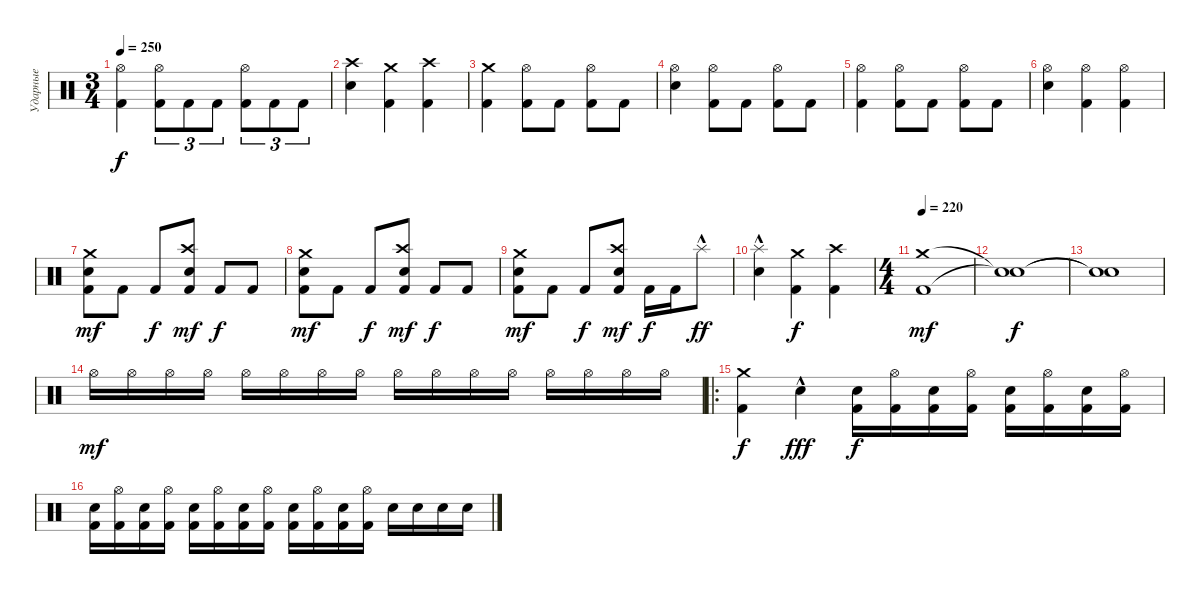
\track ("Ударные" "Ударные") {instrument percussion}
\staff {score}
\articulation defaults
\ts (3 4)
\tempo 250
\clef neutral
\ks c
("Hi-Hat (open)" "Kick (hit) 2").4{dy f} ("Hi-Hat (open)" "Kick (hit) 2").8{tu (3 2)} "Kick (hit) 2".8{tu (3 2)} "Kick (hit) 2".8{tu (3 2)} ("Hi-Hat (open)" "Kick (hit) 2").8{tu (3 2)} "Kick (hit) 2".8{tu (3 2)} "Kick (hit) 2".8{tu (3 2)} |
("Crash high (hit)" "Electric Snare (hit)").4 ("Crash medium (hit)" "Kick (hit) 2").4 ("Crash high (hit)" "Kick (hit) 2").4 |
("Crash medium (hit)" "Kick (hit) 2").4 ("Hi-Hat (open)" "Kick (hit) 2").8 "Kick (hit) 2".8 ("Hi-Hat (open)" "Kick (hit) 2").8 "Kick (hit) 2".8 |
("Hi-Hat (open)" "Electric Snare (hit)").4 ("Hi-Hat (open)" "Kick (hit) 2").8 "Kick (hit) 2".8 ("Hi-Hat (open)" "Kick (hit) 2").8 "Kick (hit) 2".8 |
("Hi-Hat (open)" "Kick (hit) 2").4 ("Hi-Hat (open)" "Kick (hit) 2").8 "Kick (hit) 2".8 ("Hi-Hat (open)" "Kick (hit) 2").8 "Kick (hit) 2".8 |
("Hi-Hat (open)" "Electric Snare (hit)").4 ("Hi-Hat (open)" "Kick (hit) 2").4 ("Hi-Hat (open)" "Kick (hit) 2").4 |
("Crash medium (hit)" "Electric Snare (hit)" "Kick (hit) 2").8{dy mf} "Kick (hit) 2".8 "Kick (hit) 2".8{dy f} ("Crash high (hit)" "Electric Snare (hit)" "Kick (hit) 2").8{dy mf} "Kick (hit) 2".8{dy f} "Kick (hit) 2".8 |
("Crash medium (hit)" "Electric Snare (hit)" "Kick (hit) 2").8{dy mf} "Kick (hit) 2".8 "Kick (hit) 2".8{dy f} ("Crash high (hit)" "Electric Snare (hit)" "Kick (hit) 2").8{dy mf} "Kick (hit) 2".8{dy f} "Kick (hit) 2".8 |
("Crash medium (hit)" "Electric Snare (hit)" "Kick (hit) 2").8{dy mf} "Kick (hit) 2".8 "Kick (hit) 2".8{dy f} ("Crash high (hit)" "Electric Snare (hit)" "Kick (hit) 2").8{dy mf} "Kick (hit) 2".16{dy f} "Kick (hit) 2".16 "Splash (hit)"{hac}.8{dy ff} |
("Splash (hit)"{hac} "Electric Snare (hit)").4 ("Crash medium (hit)" "Kick (hit) 2").4{dy f} ("Crash high (hit)" "Kick (hit) 2").4 |
\ts (4 4)
\tempo 220
("Crash medium (hit)" "Kick (hit) 2").1{dy mf} |
("Snare (hit)"{t} "Snare (hit)"{t}).1{dy f} |
("Snare (hit)"{t} "Snare (hit)"{t}).1 |
"Hi-Hat (open)".16{dy mf volume 1} "Hi-Hat (open)".16{volume 11} "Hi-Hat (open)".16 "Hi-Hat (open)".16 "Hi-Hat (open)".16 "Hi-Hat (open)".16 "Hi-Hat (open)".16 "Hi-Hat (open)".16 "Hi-Hat (open)".16 "Hi-Hat (open)".16 "Hi-Hat (open)".16 "Hi-Hat (open)".16 "Hi-Hat (open)".16 "Hi-Hat (open)".16 "Hi-Hat (open)".16 "Hi-Hat (open)".16 |
\ro
("Crash medium (hit)" "Kick (hit) 2").4{dy f} "Electric Snare (hit)"{hac}.4{dy fff} ("Electric Snare (hit)" "Kick (hit) 2").16{dy f} ("Hi-Hat (open)" "Kick (hit) 2").16 ("Electric Snare (hit)" "Kick (hit) 2").16 ("Hi-Hat (open)" "Kick (hit) 2").16 ("Electric Snare (hit)" "Kick (hit) 2").16 ("Hi-Hat (open)" "Kick (hit) 2").16 ("Electric Snare (hit)" "Kick (hit) 2").16 ("Hi-Hat (open)" "Kick (hit) 2").16 |
("Electric Snare (hit)" "Kick (hit) 2").16 ("Hi-Hat (open)" "Kick (hit) 2").16 ("Electric Snare (hit)" "Kick (hit) 2").16 ("Hi-Hat (open)" "Kick (hit) 2").16 ("Electric Snare (hit)" "Kick (hit) 2").16 ("Hi-Hat (open)" "Kick (hit) 2").16 ("Electric Snare (hit)" "Kick (hit) 2").16 ("Hi-Hat (open)" "Kick (hit) 2").16 ("Electric Snare (hit)" "Kick (hit) 2").16 ("Hi-Hat (open)" "Kick (hit) 2").16 ("Electric Snare (hit)" "Kick (hit) 2").16 ("Hi-Hat (open)" "Kick (hit) 2").16 "Electric Snare (hit)".16 "Electric Snare (hit)".16 "Electric Snare (hit)".16 "Electric Snare (hit)".16
